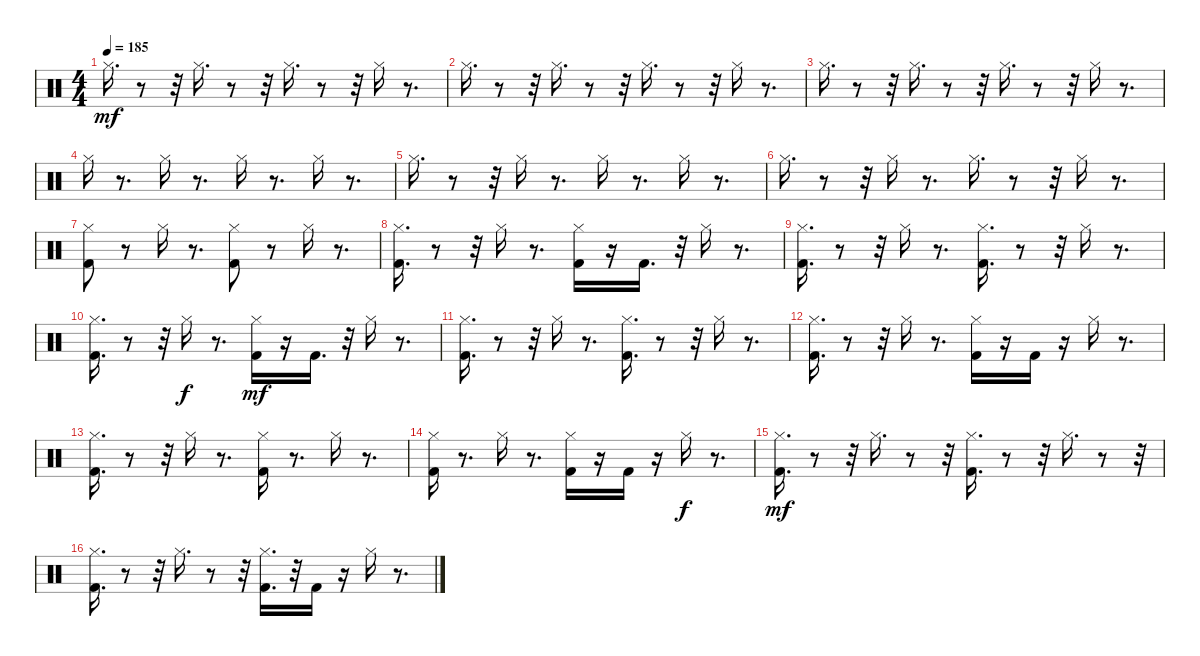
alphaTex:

\track "" {instrument percussion}
\staff {score}
\articulation defaults
\ts (4 4)
\tempo 185
\clef neutral
\ks c "Hi-Hat (closed)".16{d dy mf}
r.8 r.32 "Hi-Hat (closed)".16{d} r.8 r.32 "Hi-Hat (closed)".16{d} r.8 r.32 "Hi-Hat (closed)".16 r.8{d} |
"Hi-Hat (closed)".16{d} r.8 r.32 "Hi-Hat (closed)".16{d} r.8 r.32 "Hi-Hat (closed)".16{d} r.8 r.32 "Hi-Hat (closed)".16 r.8{d} |
"Hi-Hat (closed)".16{d} r.8 r.32 "Hi-Hat (closed)".16{d} r.8 r.32 "Hi-Hat (closed)".16{d} r.8 r.32 "Hi-Hat (closed)".16 r.8{d} |
"Hi-Hat (closed)".16 r.8{d} "Hi-Hat (closed)".16 r.8{d} "Hi-Hat (closed)".16 r.8{d} "Hi-Hat (closed)".16 r.8{d} |
"Hi-Hat (closed)".16{d} r.8 r.32 "Hi-Hat (closed)".16 r.8{d} "Hi-Hat (closed)".16 r.8{d} "Hi-Hat (closed)".16 r.8{d} |
"Hi-Hat (closed)".16{d} r.8 r.32 "Hi-Hat (closed)".16 r.8{d} "Hi-Hat (closed)".16{d} r.8 r.32 "Hi-Hat (closed)".16 r.8{d} |
("Kick (hit) 2" "Hi-Hat (closed)").8 r.8 "Hi-Hat (closed)".16 r.8{d} ("Kick (hit) 2" "Hi-Hat (closed)").8 r.8 "Hi-Hat (closed)".16 r.8{d} |
("Kick (hit) 2" "Hi-Hat (closed)").16{d} r.8 r.32 "Hi-Hat (closed)".16 r.8{d} ("Kick (hit) 2" "Hi-Hat (closed)").16 r.16 "Kick (hit) 2".16{d} r.32 "Hi-Hat (closed)".16 r.8{d} |
("Kick (hit) 2" "Hi-Hat (closed)").16{d} r.8 r.32 "Hi-Hat (closed)".16 r.8{d} ("Kick (hit) 2" "Hi-Hat (closed)").16{d} r.8 r.32 "Hi-Hat (closed)".16 r.8{d} |
("Kick (hit) 2" "Hi-Hat (closed)").16{d} r.8 r.32 "Hi-Hat (closed)".16{dy f} r.8{d} ("Kick (hit) 2" "Hi-Hat (closed)").16{dy mf} r.16 "Kick (hit) 2".16{d} r.32 "Hi-Hat (closed)".16 r.8{d} |
("Kick (hit) 2" "Hi-Hat (closed)").16{d} r.8 r.32 "Hi-Hat (closed)".16 r.8{d} ("Kick (hit) 2" "Hi-Hat (closed)").16{d} r.8 r.32 "Hi-Hat (closed)".16 r.8{d} |
("Kick (hit) 2" "Hi-Hat (closed)").16{d} r.8 r.32 "Hi-Hat (closed)".16 r.8{d} ("Kick (hit) 2" "Hi-Hat (closed)").16 r.16 "Kick (hit) 2".16 r.16 "Hi-Hat (closed)".16 r.8{d} |
("Kick (hit) 2" "Hi-Hat (closed)").16{d} r.8 r.32 "Hi-Hat (closed)".16 r.8{d} ("Kick (hit) 2" "Hi-Hat (closed)").16 r.8{d} "Hi-Hat (closed)".16 r.8{d} |
("Kick (hit) 2" "Hi-Hat (closed)").16 r.8{d} "Hi-Hat (closed)".16 r.8{d} ("Kick (hit) 2" "Hi-Hat (closed)").16 r.16 "Kick (hit) 2".16 r.16 "Hi-Hat (closed)".16{dy f} r.8{d} |
("Kick (hit) 2" "Hi-Hat (closed)").16{d dy mf} r.8 r.32 "Hi-Hat (closed)".16{d} r.8 r.32 ("Kick (hit) 2" "Hi-Hat (closed)").16{d} r.8 r.32 "Hi-Hat (closed)".16{d} r.8 r.32 |
("Kick (hit) 2" "Hi-Hat (closed)").16{d} r.8 r.32 "Hi-Hat (closed)".16{d} r.8 r.32 ("Kick (hit) 2" "Hi-Hat (closed)").16{d} r.32 "Kick (hit) 2".16 r.16 "Hi-Hat (closed)".16 r.8{d}
